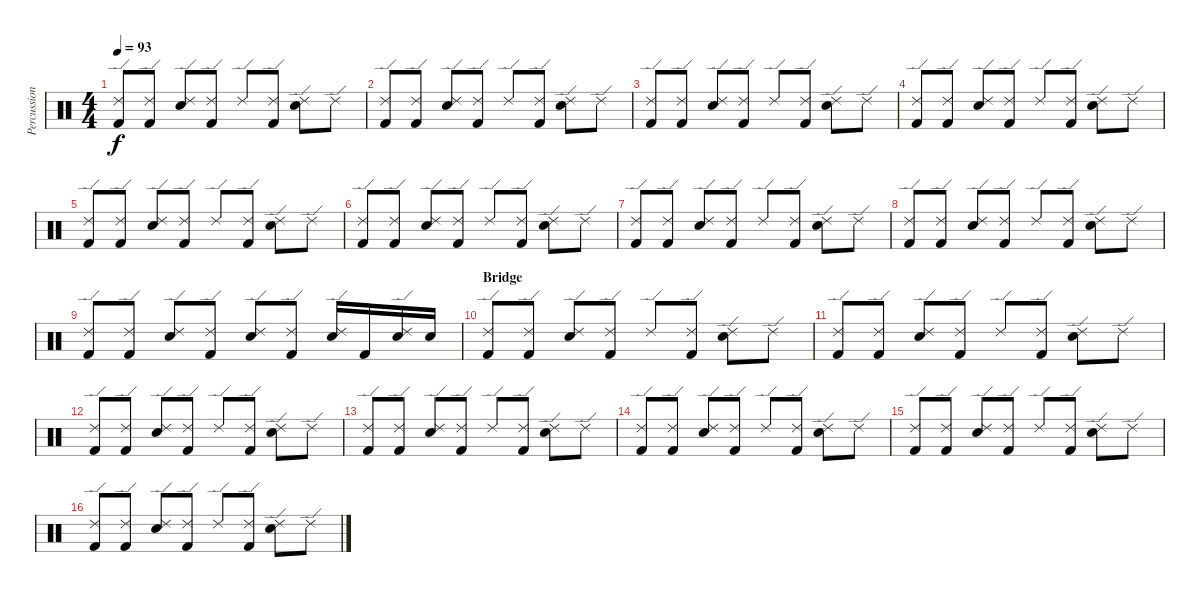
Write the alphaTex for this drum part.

\track ("Percussion" "Percussion") {instrument percussion}
\staff {score}
\articulation defaults
\ts (4 4)
\tempo 93
\clef neutral
\ks c
("Ride (edge) 2" "Kick (hit) 2").8{dy f} ("Ride (edge) 2" "Kick (hit) 2").8 ("Ride (edge) 2" "Electric Snare (hit)").8 ("Ride (edge) 2" "Kick (hit) 2").8 "Ride (edge) 2".8 ("Ride (edge) 2" "Kick (hit) 2").8 ("Ride (edge) 2" "Electric Snare (hit)").8 "Ride (edge) 2".8 |
("Ride (edge) 2" "Kick (hit) 2").8 ("Ride (edge) 2" "Kick (hit) 2").8 ("Ride (edge) 2" "Electric Snare (hit)").8 ("Ride (edge) 2" "Kick (hit) 2").8 "Ride (edge) 2".8 ("Ride (edge) 2" "Kick (hit) 2").8 ("Ride (edge) 2" "Electric Snare (hit)").8 "Ride (edge) 2".8 |
("Ride (edge) 2" "Kick (hit) 2").8 ("Ride (edge) 2" "Kick (hit) 2").8 ("Ride (edge) 2" "Electric Snare (hit)").8 ("Ride (edge) 2" "Kick (hit) 2").8 "Ride (edge) 2".8 ("Ride (edge) 2" "Kick (hit) 2").8 ("Ride (edge) 2" "Electric Snare (hit)").8 "Ride (edge) 2".8 |
("Ride (edge) 2" "Kick (hit) 2").8 ("Ride (edge) 2" "Kick (hit) 2").8 ("Ride (edge) 2" "Electric Snare (hit)").8 ("Ride (edge) 2" "Kick (hit) 2").8 "Ride (edge) 2".8 ("Ride (edge) 2" "Kick (hit) 2").8 ("Ride (edge) 2" "Electric Snare (hit)").8 "Ride (edge) 2".8 |
("Ride (edge) 2" "Kick (hit) 2").8 ("Ride (edge) 2" "Kick (hit) 2").8 ("Ride (edge) 2" "Electric Snare (hit)").8 ("Ride (edge) 2" "Kick (hit) 2").8 "Ride (edge) 2".8 ("Ride (edge) 2" "Kick (hit) 2").8 ("Ride (edge) 2" "Electric Snare (hit)").8 "Ride (edge) 2".8 |
("Ride (edge) 2" "Kick (hit) 2").8 ("Ride (edge) 2" "Kick (hit) 2").8 ("Ride (edge) 2" "Electric Snare (hit)").8 ("Ride (edge) 2" "Kick (hit) 2").8 "Ride (edge) 2".8 ("Ride (edge) 2" "Kick (hit) 2").8 ("Ride (edge) 2" "Electric Snare (hit)").8 "Ride (edge) 2".8 |
("Ride (edge) 2" "Kick (hit) 2").8 ("Ride (edge) 2" "Kick (hit) 2").8 ("Ride (edge) 2" "Electric Snare (hit)").8 ("Ride (edge) 2" "Kick (hit) 2").8 "Ride (edge) 2".8 ("Ride (edge) 2" "Kick (hit) 2").8 ("Ride (edge) 2" "Electric Snare (hit)").8 "Ride (edge) 2".8 |
("Ride (edge) 2" "Kick (hit) 2").8 ("Ride (edge) 2" "Kick (hit) 2").8 ("Ride (edge) 2" "Electric Snare (hit)").8 ("Ride (edge) 2" "Kick (hit) 2").8 "Ride (edge) 2".8 ("Ride (edge) 2" "Kick (hit) 2").8 ("Ride (edge) 2" "Electric Snare (hit)").8 "Ride (edge) 2".8 |
("Ride (edge) 2" "Kick (hit) 2").8 ("Ride (edge) 2" "Kick (hit) 2").8 ("Ride (edge) 2" "Electric Snare (hit)").8 ("Ride (edge) 2" "Kick (hit) 2").8 ("Ride (edge) 2" "Electric Snare (hit)").8 ("Ride (edge) 2" "Kick (hit) 2").8 ("Ride (edge) 2" "Electric Snare (hit)").16 "Kick (hit) 2".16 ("Ride (edge) 2" "Electric Snare (hit)").16 "Electric Snare (hit)".16 |
\section ("" "Bridge")
("Ride (edge) 2" "Kick (hit) 2").8 ("Ride (edge) 2" "Kick (hit) 2").8 ("Ride (edge) 2" "Electric Snare (hit)").8 ("Ride (edge) 2" "Kick (hit) 2").8 "Ride (edge) 2".8 ("Ride (edge) 2" "Kick (hit) 2").8 ("Ride (edge) 2" "Electric Snare (hit)").8 "Ride (edge) 2".8 |
("Ride (edge) 2" "Kick (hit) 2").8 ("Ride (edge) 2" "Kick (hit) 2").8 ("Ride (edge) 2" "Electric Snare (hit)").8 ("Ride (edge) 2" "Kick (hit) 2").8 "Ride (edge) 2".8 ("Ride (edge) 2" "Kick (hit) 2").8 ("Ride (edge) 2" "Electric Snare (hit)").8 "Ride (edge) 2".8 |
("Ride (edge) 2" "Kick (hit) 2").8 ("Ride (edge) 2" "Kick (hit) 2").8 ("Ride (edge) 2" "Electric Snare (hit)").8 ("Ride (edge) 2" "Kick (hit) 2").8 "Ride (edge) 2".8 ("Ride (edge) 2" "Kick (hit) 2").8 ("Ride (edge) 2" "Electric Snare (hit)").8 "Ride (edge) 2".8 |
("Ride (edge) 2" "Kick (hit) 2").8 ("Ride (edge) 2" "Kick (hit) 2").8 ("Ride (edge) 2" "Electric Snare (hit)").8 ("Ride (edge) 2" "Kick (hit) 2").8 "Ride (edge) 2".8 ("Ride (edge) 2" "Kick (hit) 2").8 ("Ride (edge) 2" "Electric Snare (hit)").8 "Ride (edge) 2".8 |
("Ride (edge) 2" "Kick (hit) 2").8 ("Ride (edge) 2" "Kick (hit) 2").8 ("Ride (edge) 2" "Electric Snare (hit)").8 ("Ride (edge) 2" "Kick (hit) 2").8 "Ride (edge) 2".8 ("Ride (edge) 2" "Kick (hit) 2").8 ("Ride (edge) 2" "Electric Snare (hit)").8 "Ride (edge) 2".8 |
("Ride (edge) 2" "Kick (hit) 2").8 ("Ride (edge) 2" "Kick (hit) 2").8 ("Ride (edge) 2" "Electric Snare (hit)").8 ("Ride (edge) 2" "Kick (hit) 2").8 "Ride (edge) 2".8 ("Ride (edge) 2" "Kick (hit) 2").8 ("Ride (edge) 2" "Electric Snare (hit)").8 "Ride (edge) 2".8 |
("Ride (edge) 2" "Kick (hit) 2").8 ("Ride (edge) 2" "Kick (hit) 2").8 ("Ride (edge) 2" "Electric Snare (hit)").8 ("Ride (edge) 2" "Kick (hit) 2").8 "Ride (edge) 2".8 ("Ride (edge) 2" "Kick (hit) 2").8 ("Ride (edge) 2" "Electric Snare (hit)").8 "Ride (edge) 2".8
